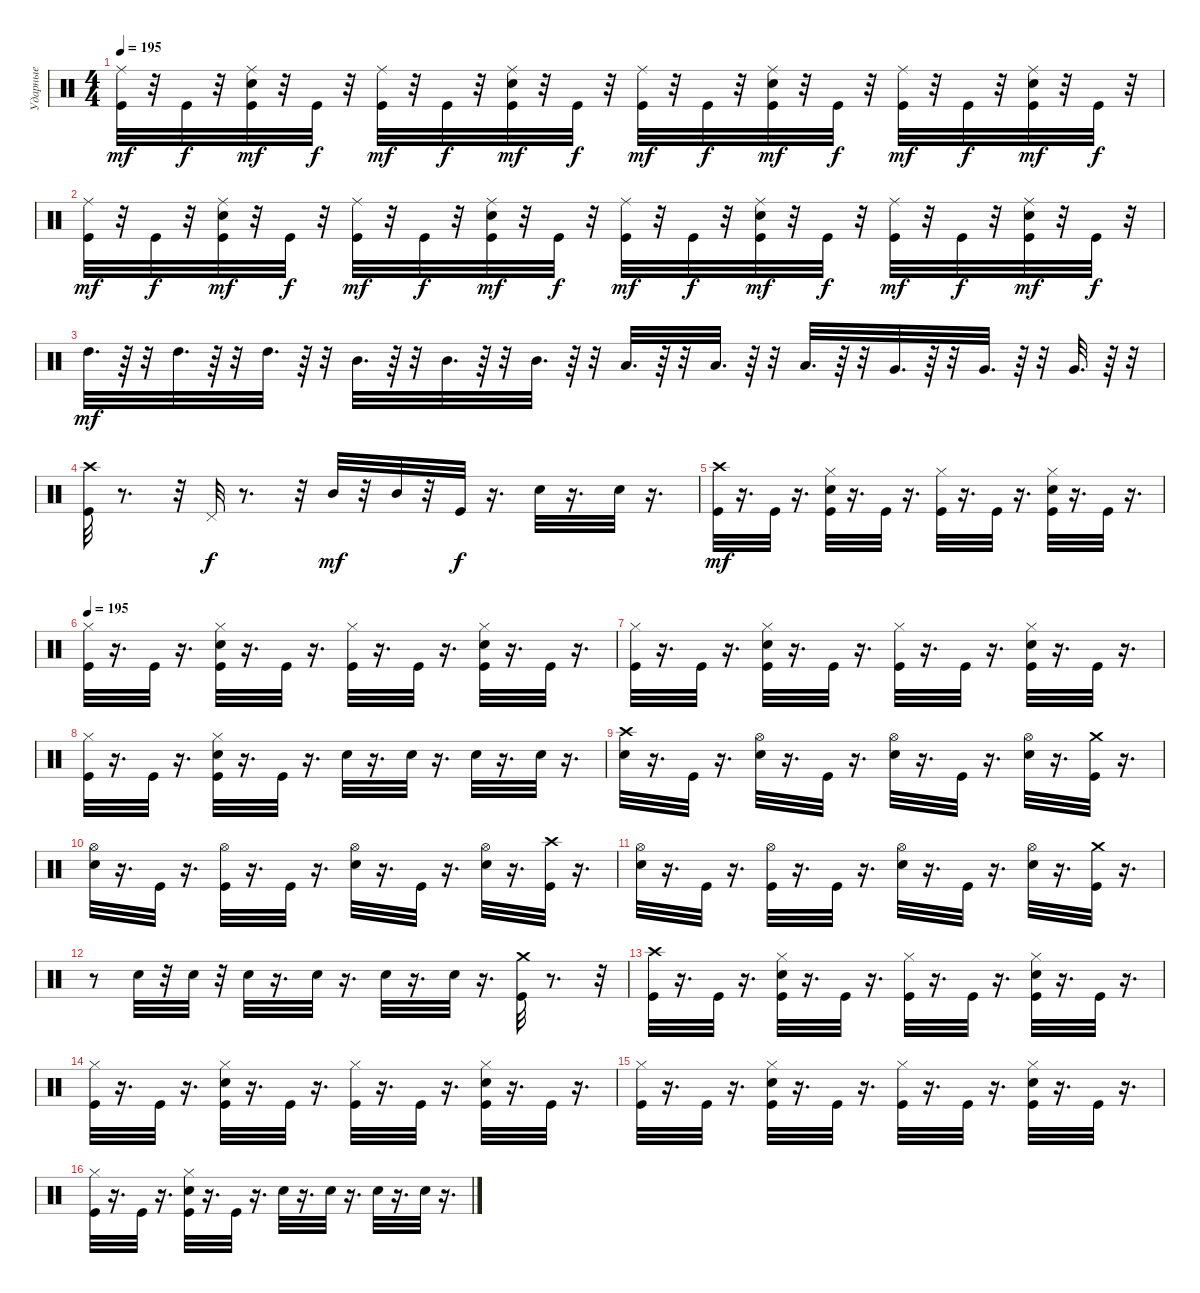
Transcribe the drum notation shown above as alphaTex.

\track ("Ударные" "Ударные") {instrument percussion}
\staff {score}
\articulation defaults
\ts (4 4)
\tempo 195
\clef neutral
\ks c
("Ride (middle)" "Kick (hit)").32{dy mf} r.32 "Kick (hit)".32{dy f} r.32 ("Electric Snare (hit)" "Ride (middle)" "Kick (hit)").32{dy mf} r.32 "Kick (hit)".32{dy f} r.32 ("Ride (middle)" "Kick (hit)").32{dy mf} r.32 "Kick (hit)".32{dy f} r.32 ("Ride (middle)" "Kick (hit)" "Electric Snare (hit)").32{dy mf} r.32 "Kick (hit)".32{dy f} r.32 ("Ride (middle)" "Kick (hit)").32{dy mf} r.32 "Kick (hit)".32{dy f} r.32 ("Ride (middle)" "Kick (hit)" "Electric Snare (hit)").32{dy mf} r.32 "Kick (hit)".32{dy f} r.32 ("Ride (middle)" "Kick (hit)").32{dy mf} r.32 "Kick (hit)".32{dy f} r.32 ("Electric Snare (hit)" "Ride (middle)" "Kick (hit)").32{dy mf} r.32 "Kick (hit)".32{dy f} r.32 |
("Ride (middle)" "Kick (hit)").32{dy mf} r.32 "Kick (hit)".32{dy f} r.32 ("Electric Snare (hit)" "Ride (middle)" "Kick (hit)").32{dy mf} r.32 "Kick (hit)".32{dy f} r.32 ("Ride (middle)" "Kick (hit)").32{dy mf} r.32 "Kick (hit)".32{dy f} r.32 ("Ride (middle)" "Kick (hit)" "Electric Snare (hit)").32{dy mf} r.32 "Kick (hit)".32{dy f} r.32 ("Ride (middle)" "Kick (hit)").32{dy mf} r.32 "Kick (hit)".32{dy f} r.32 ("Ride (middle)" "Kick (hit)" "Electric Snare (hit)").32{dy mf} r.32 "Kick (hit)".32{dy f} r.32 ("Ride (middle)" "Kick (hit)").32{dy mf} r.32 "Kick (hit)".32{dy f} r.32 ("Electric Snare (hit)" "Ride (middle)" "Kick (hit)").32{dy mf} r.32 "Kick (hit)".32{dy f} r.32 |
"High Tom (hit)".32{d dy mf} r.64 r.32 "High Tom (hit)".32{d} r.64 r.32 "High Tom (hit)".32{d} r.64 r.32 "Mid Tom (hit)".32{d} r.64 r.32 "Mid Tom (hit)".32{d} r.64 r.32 "Mid Tom (hit)".32{d} r.64 r.32 "Low Tom (hit)".32{d} r.64 r.32 "Low Tom (hit)".32{d} r.64 r.32 "Low Tom (hit)".32{d} r.64 r.32 "Very Low Tom (hit)".32{d} r.64 r.32 "Very Low Tom (hit)".32{d} r.64 r.32 "Very Low Tom (hit)".32{d} r.64 r.32 |
("Crash high (hit)" "Kick (hit)").32 r.8{d} r.32 "Pedal Hi-Hat (hit)".32{dy f} r.8{d} r.32 "Mid Tom (hit)".32{dy mf} r.32 "Mid Tom (hit)".32 r.32 "Kick (hit)".32{dy f} r.16{d} "Electric Snare (hit)".32 r.16{d} "Electric Snare (hit)".32 r.16{d} |
("Crash high (hit)" "Kick (hit)").32{dy mf} r.16{d} "Kick (hit)".32 r.16{d} ("Electric Snare (hit)" "Kick (hit)" "Hi-Hat (closed)").32 r.16{d} "Kick (hit)".32 r.16{d} ("Kick (hit)" "Hi-Hat (closed)").32 r.16{d} "Kick (hit)".32 r.16{d} ("Electric Snare (hit)" "Kick (hit)" "Hi-Hat (closed)").32 r.16{d} "Kick (hit)".32 r.16{d} |
\tempo 195
("Hi-Hat (closed)" "Kick (hit)").32 r.16{d} "Kick (hit)".32 r.16{d} ("Electric Snare (hit)" "Kick (hit)" "Hi-Hat (closed)").32 r.16{d} "Kick (hit)".32 r.16{d} ("Kick (hit)" "Hi-Hat (closed)").32 r.16{d} "Kick (hit)".32 r.16{d} ("Electric Snare (hit)" "Kick (hit)" "Hi-Hat (closed)").32 r.16{d} "Kick (hit)".32 r.16{d} |
("Hi-Hat (closed)" "Kick (hit)").32 r.16{d} "Kick (hit)".32 r.16{d} ("Electric Snare (hit)" "Kick (hit)" "Hi-Hat (closed)").32 r.16{d} "Kick (hit)".32 r.16{d} ("Kick (hit)" "Hi-Hat (closed)").32 r.16{d} "Kick (hit)".32 r.16{d} ("Electric Snare (hit)" "Kick (hit)" "Hi-Hat (closed)").32 r.16{d} "Kick (hit)".32 r.16{d} |
("Hi-Hat (closed)" "Kick (hit)").32 r.16{d} "Kick (hit)".32 r.16{d} ("Electric Snare (hit)" "Kick (hit)" "Hi-Hat (closed)").32 r.16{d} "Kick (hit)".32 r.16{d} "Electric Snare (hit)".32 r.16{d} "Electric Snare (hit)".32 r.16{d} "Electric Snare (hit)".32 r.16{d} "Electric Snare (hit)".32 r.16{d} |
("Crash high (hit)" "Electric Snare (hit)").32 r.16{d} "Kick (hit)".32 r.16{d} ("Electric Snare (hit)" "Hi-Hat (open)").32 r.16{d} "Kick (hit)".32 r.16{d} ("Electric Snare (hit)" "Hi-Hat (open)").32 r.16{d} "Kick (hit)".32 r.16{d} ("Hi-Hat (open)" "Electric Snare (hit)").32 r.16{d} ("Kick (hit)" "Crash medium (hit)").32 r.16{d} |
("Hi-Hat (open)" "Electric Snare (hit)").32 r.16{d} "Kick (hit)".32 r.16{d} ("Hi-Hat (open)" "Kick (hit)").32 r.16{d} "Kick (hit)".32 r.16{d} ("Hi-Hat (open)" "Electric Snare (hit)").32 r.16{d} "Kick (hit)".32 r.16{d} ("Electric Snare (hit)" "Hi-Hat (open)").32 r.16{d} ("Crash high (hit)" "Kick (hit)").32 r.16{d} |
("Electric Snare (hit)" "Hi-Hat (open)").32 r.16{d} "Kick (hit)".32 r.16{d} ("Kick (hit)" "Hi-Hat (open)").32 r.16{d} "Kick (hit)".32 r.16{d} ("Electric Snare (hit)" "Hi-Hat (open)").32 r.16{d} "Kick (hit)".32 r.16{d} ("Electric Snare (hit)" "Hi-Hat (open)").32 r.16{d} ("Kick (hit)" "Crash medium (hit)").32 r.16{d} |
r.8 "Electric Snare (hit)".32 r.32 "Electric Snare (hit)".32 r.32 "Electric Snare (hit)".32 r.16{d} "Electric Snare (hit)".32 r.16{d} "Electric Snare (hit)".32 r.16{d} "Electric Snare (hit)".32 r.16{d} ("Kick (hit)" "Crash medium (hit)").32 r.8{d} r.32 |
("Crash high (hit)" "Kick (hit)").32 r.16{d} "Kick (hit)".32 r.16{d} ("Electric Snare (hit)" "Kick (hit)" "Hi-Hat (closed)").32 r.16{d} "Kick (hit)".32 r.16{d} ("Kick (hit)" "Hi-Hat (closed)").32 r.16{d} "Kick (hit)".32 r.16{d} ("Electric Snare (hit)" "Kick (hit)" "Hi-Hat (closed)").32 r.16{d} "Kick (hit)".32 r.16{d} |
("Hi-Hat (closed)" "Kick (hit)").32 r.16{d} "Kick (hit)".32 r.16{d} ("Electric Snare (hit)" "Kick (hit)" "Hi-Hat (closed)").32 r.16{d} "Kick (hit)".32 r.16{d} ("Kick (hit)" "Hi-Hat (closed)").32 r.16{d} "Kick (hit)".32 r.16{d} ("Electric Snare (hit)" "Kick (hit)" "Hi-Hat (closed)").32 r.16{d} "Kick (hit)".32 r.16{d} |
("Hi-Hat (closed)" "Kick (hit)").32 r.16{d} "Kick (hit)".32 r.16{d} ("Electric Snare (hit)" "Kick (hit)" "Hi-Hat (closed)").32 r.16{d} "Kick (hit)".32 r.16{d} ("Kick (hit)" "Hi-Hat (closed)").32 r.16{d} "Kick (hit)".32 r.16{d} ("Electric Snare (hit)" "Kick (hit)" "Hi-Hat (closed)").32 r.16{d} "Kick (hit)".32 r.16{d} |
("Hi-Hat (closed)" "Kick (hit)").32 r.16{d} "Kick (hit)".32 r.16{d} ("Electric Snare (hit)" "Kick (hit)" "Hi-Hat (closed)").32 r.16{d} "Kick (hit)".32 r.16{d} "Electric Snare (hit)".32 r.16{d} "Electric Snare (hit)".32 r.16{d} "Electric Snare (hit)".32 r.16{d} "Electric Snare (hit)".32 r.16{d}
